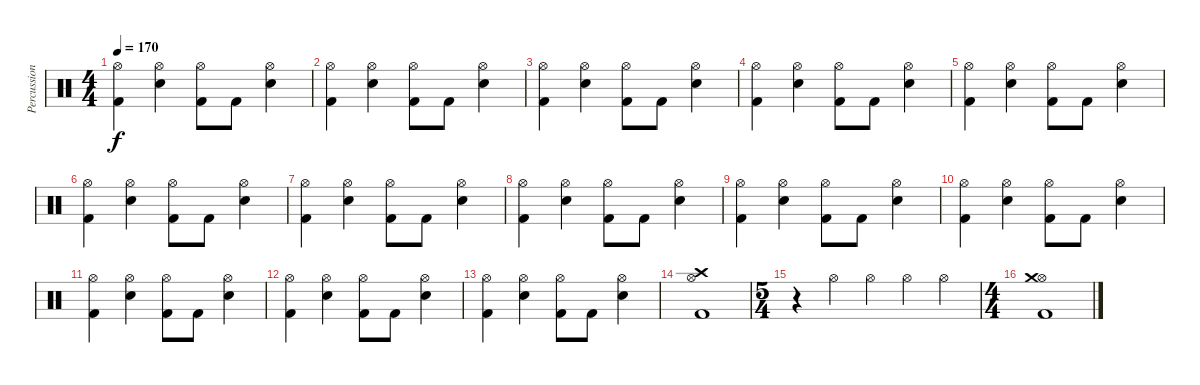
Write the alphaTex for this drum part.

\track ("Percussion - Who the fuck knows" "Percussion") {instrument percussion}
\staff {score}
\articulation defaults
\ts (4 4)
\tempo 170
\clef neutral
\ks c
("Kick (hit) 2" "Hi-Hat (open)").4{dy f} ("Hi-Hat (open)" "Snare (hit) 2").4 ("Hi-Hat (open)" "Kick (hit) 2").8 "Kick (hit) 2".8 ("Hi-Hat (open)" "Snare (hit) 2").4 |
("Kick (hit) 2" "Hi-Hat (open)").4 ("Hi-Hat (open)" "Snare (hit) 2").4 ("Hi-Hat (open)" "Kick (hit) 2").8 "Kick (hit) 2".8 ("Hi-Hat (open)" "Snare (hit) 2").4 |
("Kick (hit) 2" "Hi-Hat (open)").4 ("Hi-Hat (open)" "Snare (hit) 2").4 ("Hi-Hat (open)" "Kick (hit) 2").8 "Kick (hit) 2".8 ("Hi-Hat (open)" "Snare (hit) 2").4 |
("Kick (hit) 2" "Hi-Hat (open)").4 ("Hi-Hat (open)" "Snare (hit) 2").4 ("Hi-Hat (open)" "Kick (hit) 2").8 "Kick (hit) 2".8 ("Hi-Hat (open)" "Snare (hit) 2").4 |
("Kick (hit) 2" "Hi-Hat (open)").4 ("Hi-Hat (open)" "Snare (hit) 2").4 ("Hi-Hat (open)" "Kick (hit) 2").8 "Kick (hit) 2".8 ("Hi-Hat (open)" "Snare (hit) 2").4 |
("Kick (hit) 2" "Hi-Hat (open)").4 ("Hi-Hat (open)" "Snare (hit) 2").4 ("Hi-Hat (open)" "Kick (hit) 2").8 "Kick (hit) 2".8 ("Hi-Hat (open)" "Snare (hit) 2").4 |
("Kick (hit) 2" "Hi-Hat (open)").4 ("Hi-Hat (open)" "Snare (hit) 2").4 ("Hi-Hat (open)" "Kick (hit) 2").8 "Kick (hit) 2".8 ("Hi-Hat (open)" "Snare (hit) 2").4 |
("Kick (hit) 2" "Hi-Hat (open)").4 ("Hi-Hat (open)" "Snare (hit) 2").4 ("Hi-Hat (open)" "Kick (hit) 2").8 "Kick (hit) 2".8 ("Hi-Hat (open)" "Snare (hit) 2").4 |
("Kick (hit) 2" "Hi-Hat (open)").4 ("Hi-Hat (open)" "Snare (hit) 2").4 ("Hi-Hat (open)" "Kick (hit) 2").8 "Kick (hit) 2".8 ("Hi-Hat (open)" "Snare (hit) 2").4 |
("Kick (hit) 2" "Hi-Hat (open)").4 ("Hi-Hat (open)" "Snare (hit) 2").4 ("Hi-Hat (open)" "Kick (hit) 2").8 "Kick (hit) 2".8 ("Hi-Hat (open)" "Snare (hit) 2").4 |
("Kick (hit) 2" "Hi-Hat (open)").4 ("Hi-Hat (open)" "Snare (hit) 2").4 ("Hi-Hat (open)" "Kick (hit) 2").8 "Kick (hit) 2".8 ("Hi-Hat (open)" "Snare (hit) 2").4 |
("Kick (hit) 2" "Hi-Hat (open)").4 ("Hi-Hat (open)" "Snare (hit) 2").4 ("Hi-Hat (open)" "Kick (hit) 2").8 "Kick (hit) 2".8 ("Hi-Hat (open)" "Snare (hit) 2").4 |
("Kick (hit) 2" "Hi-Hat (open)").4 ("Hi-Hat (open)" "Snare (hit) 2").4 ("Hi-Hat (open)" "Kick (hit) 2").8 "Kick (hit) 2".8 ("Hi-Hat (open)" "Snare (hit) 2").4 |
("Kick (hit) 2" "Hi-Hat (open)" "Crash high (hit)").1 |
\ts (5 4)
r.4 "Hi-Hat (open)".4 "Hi-Hat (open)".4 "Hi-Hat (open)".4 "Hi-Hat (open)".4 |
\ts (4 4)
("Kick (hit) 2" "Hi-Hat (open)" "Crash medium (hit)").1
